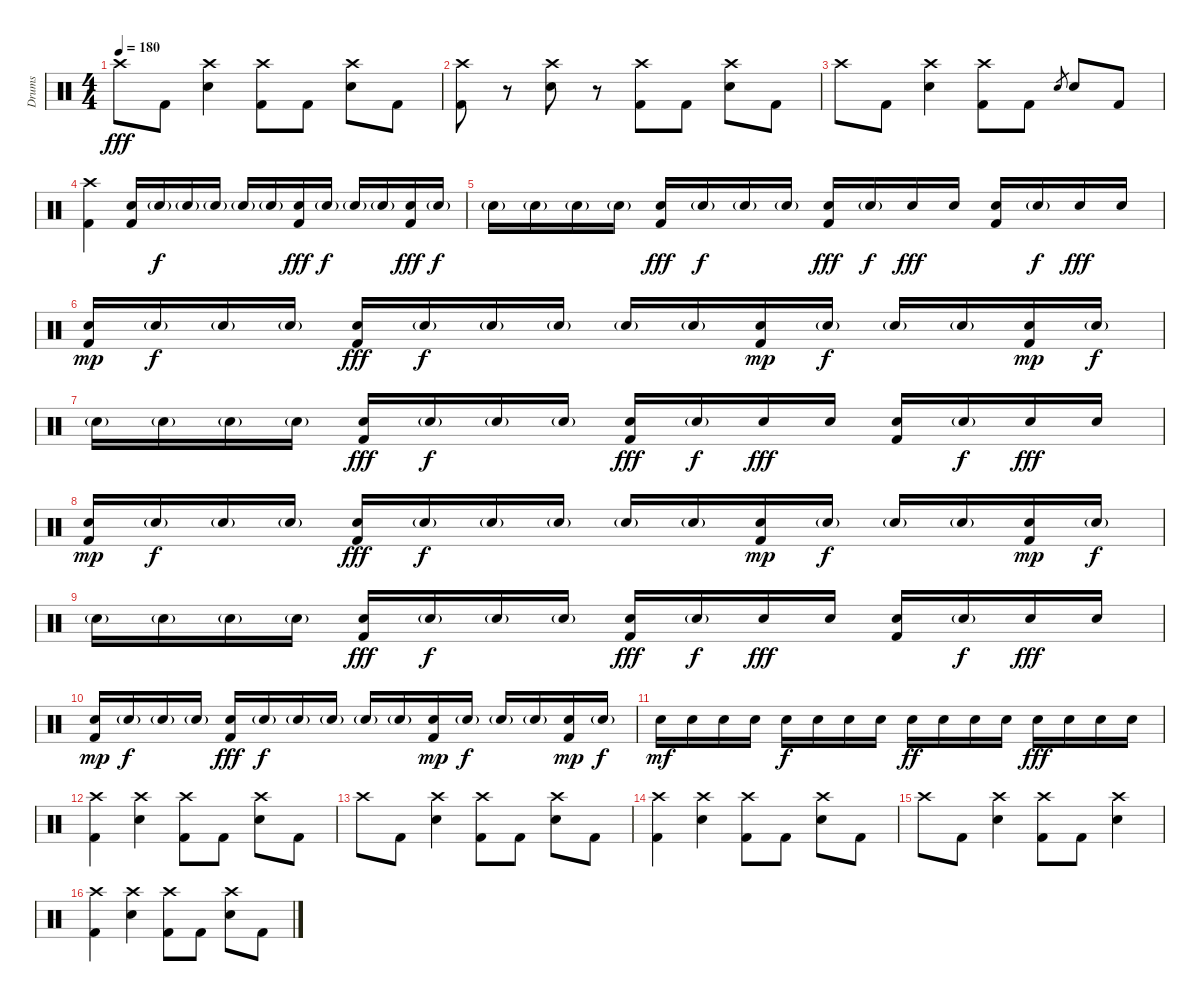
\track ("Drums" "Drums") {instrument percussion}
\staff {score}
\articulation defaults
\ts (4 4)
\tempo 180
\clef neutral
\ks c "Crash high (hit)".8{dy fff} "Kick (hit) 2".8
("Crash high (hit)" "Electric Snare (hit)").4 ("Crash high (hit)" "Kick (hit) 2").8 "Kick (hit) 2".8 ("Crash high (hit)" "Electric Snare (hit)").8 "Kick (hit) 2".8 |
("Crash high (hit)" "Kick (hit) 2").8 r.8 ("Crash high (hit)" "Electric Snare (hit)").8 r.8 ("Crash high (hit)" "Kick (hit) 2").8 "Kick (hit) 2".8 ("Crash high (hit)" "Electric Snare (hit)").8 "Kick (hit) 2".8 |
"Crash high (hit)".8 "Kick (hit) 2".8 ("Crash high (hit)" "Electric Snare (hit)").4 ("Crash high (hit)" "Kick (hit) 2").8 "Kick (hit) 2".8 "Electric Snare (hit)".8{gr} "Electric Snare (hit)".8 "Kick (hit) 2".8 |
("Crash high (hit)" "Kick (hit) 2").4 ("Electric Snare (hit)" "Kick (hit) 2").16 "Electric Snare (hit)"{g}.16{dy f} "Electric Snare (hit)"{g}.16 "Electric Snare (hit)"{g}.16 "Electric Snare (hit)"{g}.16 "Electric Snare (hit)"{g}.16 ("Electric Snare (hit)" "Kick (hit) 2").16{dy fff} "Electric Snare (hit)"{g}.16{dy f} "Electric Snare (hit)"{g}.16 "Electric Snare (hit)"{g}.16 ("Electric Snare (hit)" "Kick (hit) 2").16{dy fff} "Electric Snare (hit)"{g}.16{dy f} |
"Electric Snare (hit)"{g}.16 "Electric Snare (hit)"{g}.16 "Electric Snare (hit)"{g}.16 "Electric Snare (hit)"{g}.16 ("Electric Snare (hit)" "Kick (hit) 2").16{dy fff} "Electric Snare (hit)"{g}.16{dy f} "Electric Snare (hit)"{g}.16 "Electric Snare (hit)"{g}.16 ("Electric Snare (hit)" "Kick (hit) 2").16{dy fff} "Electric Snare (hit)"{g}.16{dy f} "Electric Snare (hit)".16{dy fff} "Electric Snare (hit)".16 ("Electric Snare (hit)" "Kick (hit) 2").16 "Electric Snare (hit)"{g}.16{dy f} "Electric Snare (hit)".16{dy fff} "Electric Snare (hit)".16 |
("Electric Snare (hit)" "Kick (hit) 2").16{dy mp} "Electric Snare (hit)"{g}.16{dy f} "Electric Snare (hit)"{g}.16 "Electric Snare (hit)"{g}.16 ("Electric Snare (hit)" "Kick (hit) 2").16{dy fff} "Electric Snare (hit)"{g}.16{dy f} "Electric Snare (hit)"{g}.16 "Electric Snare (hit)"{g}.16 "Electric Snare (hit)"{g}.16 "Electric Snare (hit)"{g}.16 ("Electric Snare (hit)" "Kick (hit) 2").16{dy mp} "Electric Snare (hit)"{g}.16{dy f} "Electric Snare (hit)"{g}.16 "Electric Snare (hit)"{g}.16 ("Electric Snare (hit)" "Kick (hit) 2").16{dy mp} "Electric Snare (hit)"{g}.16{dy f} |
"Electric Snare (hit)"{g}.16 "Electric Snare (hit)"{g}.16 "Electric Snare (hit)"{g}.16 "Electric Snare (hit)"{g}.16 ("Electric Snare (hit)" "Kick (hit) 2").16{dy fff} "Electric Snare (hit)"{g}.16{dy f} "Electric Snare (hit)"{g}.16 "Electric Snare (hit)"{g}.16 ("Electric Snare (hit)" "Kick (hit) 2").16{dy fff} "Electric Snare (hit)"{g}.16{dy f} "Electric Snare (hit)".16{dy fff} "Electric Snare (hit)".16 ("Electric Snare (hit)" "Kick (hit) 2").16 "Electric Snare (hit)"{g}.16{dy f} "Electric Snare (hit)".16{dy fff} "Electric Snare (hit)".16 |
("Electric Snare (hit)" "Kick (hit) 2").16{dy mp} "Electric Snare (hit)"{g}.16{dy f} "Electric Snare (hit)"{g}.16 "Electric Snare (hit)"{g}.16 ("Electric Snare (hit)" "Kick (hit) 2").16{dy fff} "Electric Snare (hit)"{g}.16{dy f} "Electric Snare (hit)"{g}.16 "Electric Snare (hit)"{g}.16 "Electric Snare (hit)"{g}.16 "Electric Snare (hit)"{g}.16 ("Electric Snare (hit)" "Kick (hit) 2").16{dy mp} "Electric Snare (hit)"{g}.16{dy f} "Electric Snare (hit)"{g}.16 "Electric Snare (hit)"{g}.16 ("Electric Snare (hit)" "Kick (hit) 2").16{dy mp} "Electric Snare (hit)"{g}.16{dy f} |
"Electric Snare (hit)"{g}.16 "Electric Snare (hit)"{g}.16 "Electric Snare (hit)"{g}.16 "Electric Snare (hit)"{g}.16 ("Electric Snare (hit)" "Kick (hit) 2").16{dy fff} "Electric Snare (hit)"{g}.16{dy f} "Electric Snare (hit)"{g}.16 "Electric Snare (hit)"{g}.16 ("Electric Snare (hit)" "Kick (hit) 2").16{dy fff} "Electric Snare (hit)"{g}.16{dy f} "Electric Snare (hit)".16{dy fff} "Electric Snare (hit)".16 ("Electric Snare (hit)" "Kick (hit) 2").16 "Electric Snare (hit)"{g}.16{dy f} "Electric Snare (hit)".16{dy fff} "Electric Snare (hit)".16 |
("Electric Snare (hit)" "Kick (hit) 2").16{dy mp} "Electric Snare (hit)"{g}.16{dy f} "Electric Snare (hit)"{g}.16 "Electric Snare (hit)"{g}.16 ("Electric Snare (hit)" "Kick (hit) 2").16{dy fff} "Electric Snare (hit)"{g}.16{dy f} "Electric Snare (hit)"{g}.16 "Electric Snare (hit)"{g}.16 "Electric Snare (hit)"{g}.16 "Electric Snare (hit)"{g}.16 ("Electric Snare (hit)" "Kick (hit) 2").16{dy mp} "Electric Snare (hit)"{g}.16{dy f} "Electric Snare (hit)"{g}.16 "Electric Snare (hit)"{g}.16 ("Electric Snare (hit)" "Kick (hit) 2").16{dy mp} "Electric Snare (hit)"{g}.16{dy f} |
"Electric Snare (hit)".16{dy mf} "Electric Snare (hit)".16 "Electric Snare (hit)".16 "Electric Snare (hit)".16 "Electric Snare (hit)".16{dy f} "Electric Snare (hit)".16 "Electric Snare (hit)".16 "Electric Snare (hit)".16 "Electric Snare (hit)".16{dy ff} "Electric Snare (hit)".16 "Electric Snare (hit)".16 "Electric Snare (hit)".16 "Electric Snare (hit)".16{dy fff} "Electric Snare (hit)".16 "Electric Snare (hit)".16 "Electric Snare (hit)".16 |
("Crash high (hit)" "Kick (hit) 2").4 ("Crash high (hit)" "Electric Snare (hit)").4 ("Crash high (hit)" "Kick (hit) 2").8 "Kick (hit) 2".8 ("Crash high (hit)" "Electric Snare (hit)").8 "Kick (hit) 2".8 |
"Crash high (hit)".8 "Kick (hit) 2".8 ("Crash high (hit)" "Electric Snare (hit)").4 ("Crash high (hit)" "Kick (hit) 2").8 "Kick (hit) 2".8 ("Crash high (hit)" "Electric Snare (hit)").8 "Kick (hit) 2".8 |
("Crash high (hit)" "Kick (hit) 2").4 ("Crash high (hit)" "Electric Snare (hit)").4 ("Crash high (hit)" "Kick (hit) 2").8 "Kick (hit) 2".8 ("Crash high (hit)" "Electric Snare (hit)").8 "Kick (hit) 2".8 |
"Crash high (hit)".8 "Kick (hit) 2".8 ("Crash high (hit)" "Electric Snare (hit)").4 ("Crash high (hit)" "Kick (hit) 2").8 "Kick (hit) 2".8 ("Crash high (hit)" "Electric Snare (hit)").4 |
("Crash high (hit)" "Kick (hit) 2").4 ("Crash high (hit)" "Electric Snare (hit)").4 ("Crash high (hit)" "Kick (hit) 2").8 "Kick (hit) 2".8 ("Crash high (hit)" "Electric Snare (hit)").8 "Kick (hit) 2".8
